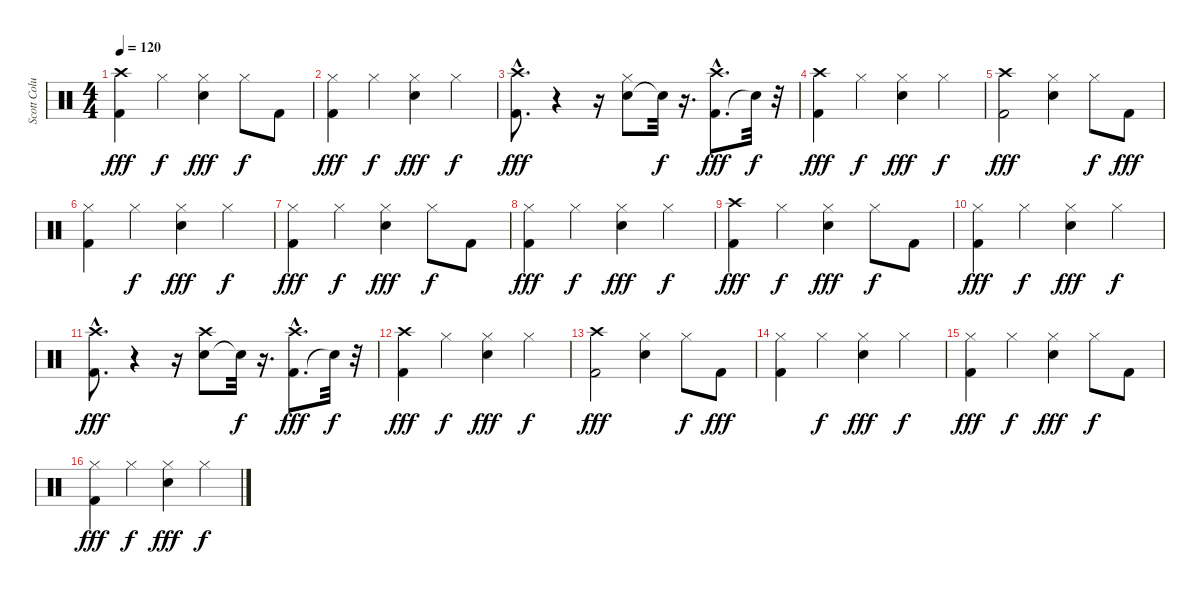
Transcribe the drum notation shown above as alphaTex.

\track ("Scott Columbus" "Scott Colu") {instrument percussion}
\staff {score}
\articulation defaults
\ts (4 4)
\tempo 120
\clef neutral
\ks c
("Kick (hit) 2" "Crash high (hit)").4{dy fff} "Hi-Hat (closed)".4{dy f} ("Electric Snare (hit)" "Hi-Hat (closed)").4{dy fff} "Hi-Hat (closed)".8{dy f} "Kick (hit) 2".8 |
("Kick (hit) 2" "Hi-Hat (closed)").4{dy fff} "Hi-Hat (closed)".4{dy f} ("Electric Snare (hit)" "Hi-Hat (closed)").4{dy fff} "Hi-Hat (closed)".4{dy f} |
("Kick (hit) 2"{hac} "Crash high (hit)"{hac}).8{d dy fff} r.4 r.16 ("Electric Snare (hit)" "Hi-Hat (closed)").8 "Snare (hit)"{t}.32{dy f} r.16{d} ("Kick (hit) 2"{hac} "Crash high (hit)"{hac}).8{d dy fff} "Snare (hit)"{t}.32{dy f} r.32 |
("Kick (hit) 2" "Crash high (hit)").4{dy fff} "Hi-Hat (closed)".4{dy f} ("Electric Snare (hit)" "Hi-Hat (closed)").4{dy fff} "Hi-Hat (closed)".4{dy f} |
("Kick (hit) 2" "Crash high (hit)").2{dy fff} ("Electric Snare (hit)" "Hi-Hat (closed)").4 "Hi-Hat (closed)".8{dy f} "Kick (hit) 2".8{dy fff} |
("Kick (hit) 2" "Hi-Hat (closed)").4 "Hi-Hat (closed)".4{dy f} ("Electric Snare (hit)" "Hi-Hat (closed)").4{dy fff} "Hi-Hat (closed)".4{dy f} |
("Kick (hit) 2" "Hi-Hat (closed)").4{dy fff} "Hi-Hat (closed)".4{dy f} ("Electric Snare (hit)" "Hi-Hat (closed)").4{dy fff} "Hi-Hat (closed)".8{dy f} "Kick (hit) 2".8 |
("Kick (hit) 2" "Hi-Hat (closed)").4{dy fff} "Hi-Hat (closed)".4{dy f} ("Electric Snare (hit)" "Hi-Hat (closed)").4{dy fff} "Hi-Hat (closed)".4{dy f} |
("Kick (hit) 2" "Crash high (hit)").4{dy fff} "Hi-Hat (closed)".4{dy f} ("Electric Snare (hit)" "Hi-Hat (closed)").4{dy fff} "Hi-Hat (closed)".8{dy f} "Kick (hit) 2".8 |
("Kick (hit) 2" "Hi-Hat (closed)").4{dy fff} "Hi-Hat (closed)".4{dy f} ("Electric Snare (hit)" "Hi-Hat (closed)").4{dy fff} "Hi-Hat (closed)".4{dy f} |
("Kick (hit) 2"{hac} "Crash high (hit)"{hac}).8{d dy fff} r.4 r.16 ("Electric Snare (hit)" "Crash high (hit)").8 "Snare (hit)"{t}.32{dy f} r.16{d} ("Kick (hit) 2"{hac} "Crash high (hit)"{hac}).8{d dy fff} "Snare (hit)"{t}.32{dy f} r.32 |
("Kick (hit) 2" "Crash high (hit)").4{dy fff} "Hi-Hat (closed)".4{dy f} ("Electric Snare (hit)" "Hi-Hat (closed)").4{dy fff} "Hi-Hat (closed)".4{dy f} |
("Kick (hit) 2" "Crash high (hit)").2{dy fff} ("Electric Snare (hit)" "Hi-Hat (closed)").4 "Hi-Hat (closed)".8{dy f} "Kick (hit) 2".8{dy fff} |
("Kick (hit) 2" "Hi-Hat (closed)").4 "Hi-Hat (closed)".4{dy f} ("Electric Snare (hit)" "Hi-Hat (closed)").4{dy fff} "Hi-Hat (closed)".4{dy f} |
("Kick (hit) 2" "Hi-Hat (closed)").4{dy fff} "Hi-Hat (closed)".4{dy f} ("Electric Snare (hit)" "Hi-Hat (closed)").4{dy fff} "Hi-Hat (closed)".8{dy f} "Kick (hit) 2".8 |
("Kick (hit) 2" "Hi-Hat (closed)").4{dy fff} "Hi-Hat (closed)".4{dy f} ("Electric Snare (hit)" "Hi-Hat (closed)").4{dy fff} "Hi-Hat (closed)".4{dy f}
